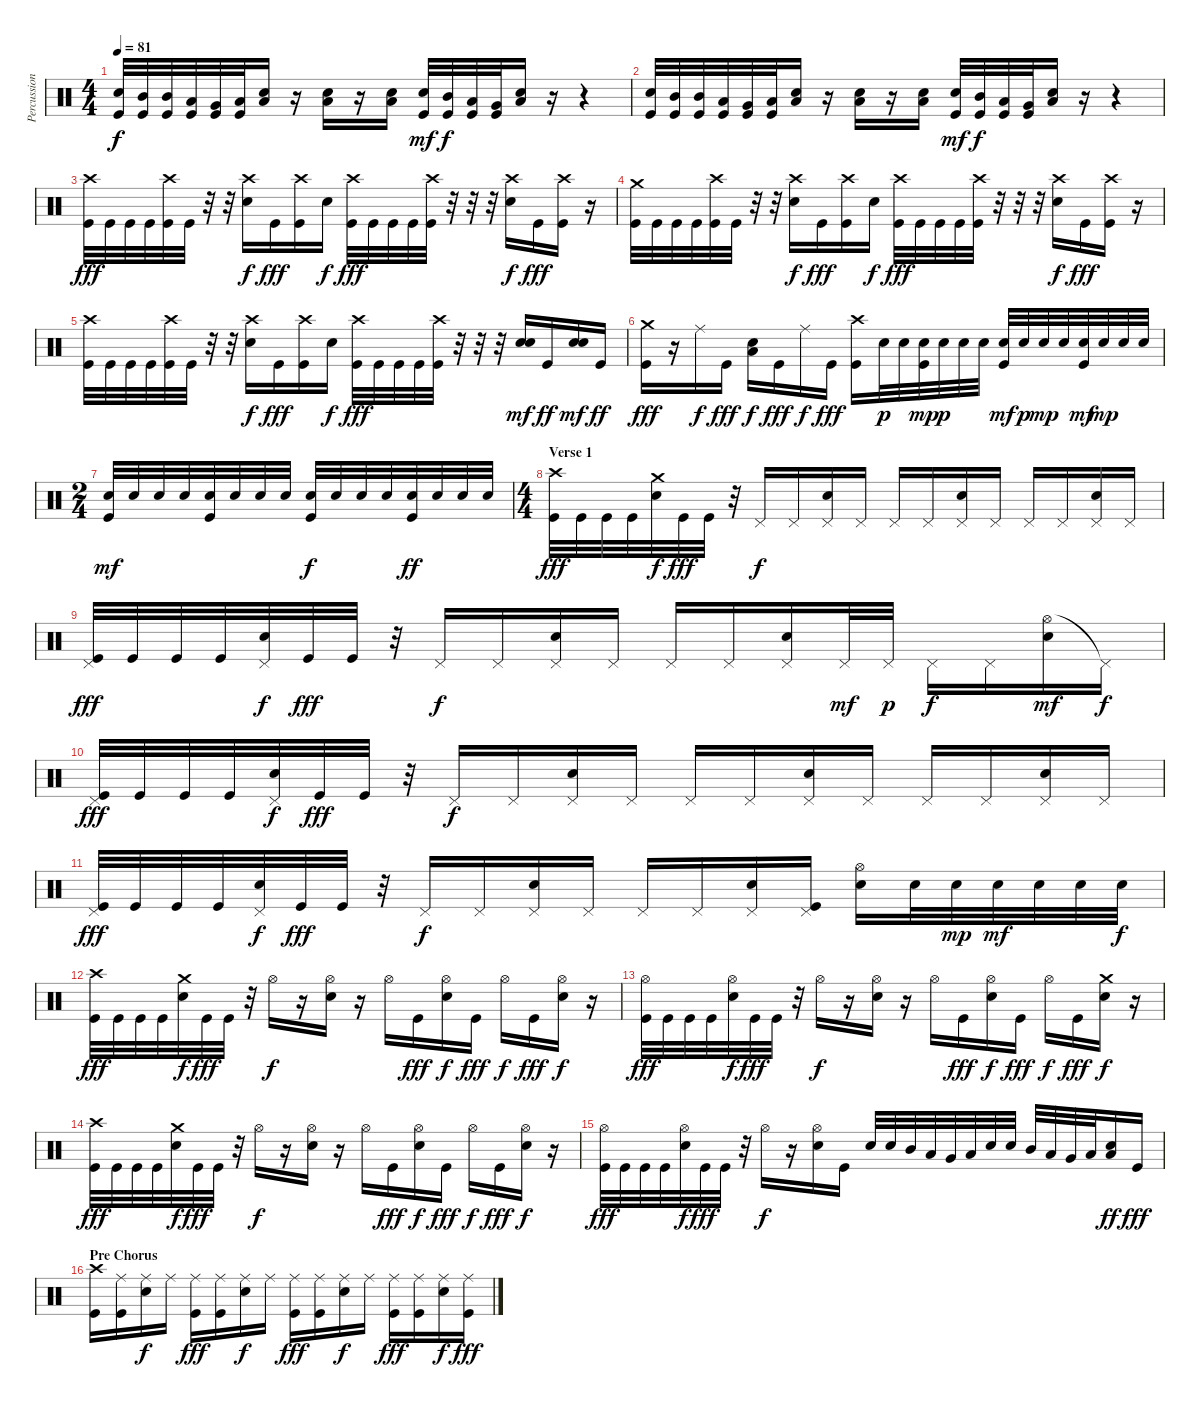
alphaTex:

\track ("Percussion" "Percussion") {instrument percussion}
\staff {score}
\articulation defaults
\ts (4 4)
\tempo 81
\clef neutral
\ks c
("Electric Snare (hit)" "Kick (hit)").32{dy f} ("Mid Tom (hit)" "Kick (hit)").32 ("Mid Tom (hit)" "Kick (hit)").32 ("Low Tom (hit)" "Kick (hit)").32 ("Very Low Tom (hit)" "Kick (hit)").32 ("Low Floor Tom (hit)" "Kick (hit)").32 ("Electric Snare (hit)" "Low Floor Tom (hit)").16 r.16 ("Electric Snare (hit)" "Low Floor Tom (hit)").16 r.16 ("Electric Snare (hit)" "Low Floor Tom (hit)").16 ("Electric Snare (hit)" "Kick (hit)").32{dy mf} ("Mid Tom (hit)" "Kick (hit)").32{dy f} ("Low Tom (hit)" "Kick (hit)").32 ("Very Low Tom (hit)" "Kick (hit)").32 ("Electric Snare (hit)" "Low Floor Tom (hit)").16 r.16 r.4 |
("Electric Snare (hit)" "Kick (hit)").32 ("Mid Tom (hit)" "Kick (hit)").32 ("Mid Tom (hit)" "Kick (hit)").32 ("Low Tom (hit)" "Kick (hit)").32 ("Very Low Tom (hit)" "Kick (hit)").32 ("Low Floor Tom (hit)" "Kick (hit)").32 ("Electric Snare (hit)" "Low Floor Tom (hit)").16 r.16 ("Electric Snare (hit)" "Low Floor Tom (hit)").16 r.16 ("Electric Snare (hit)" "Low Floor Tom (hit)").16 ("Electric Snare (hit)" "Kick (hit)").32{dy mf} ("Mid Tom (hit)" "Kick (hit)").32{dy f} ("Low Tom (hit)" "Kick (hit)").32 ("Very Low Tom (hit)" "Kick (hit)").32 ("Electric Snare (hit)" "Low Floor Tom (hit)").16 r.16 r.4 |
("Crash high (hit)" "Kick (hit)").32{dy fff} "Kick (hit)".32 "Kick (hit)".32 "Kick (hit)".32 ("Crash high (hit)" "Kick (hit)").32 "Kick (hit)".32 r.32 r.32 ("Crash high (hit)" "Electric Snare (hit)").16{dy f} "Kick (hit)".16{dy fff} ("Crash high (hit)" "Kick (hit)").16 "Electric Snare (hit)".16{dy f} ("Crash high (hit)" "Kick (hit)").32{dy fff} "Kick (hit)".32 "Kick (hit)".32 "Kick (hit)".32 ("Crash high (hit)" "Kick (hit)").32 r.32 r.32 r.32 ("Crash high (hit)" "Electric Snare (hit)").16{dy f} "Kick (hit)".16{dy fff} ("Crash high (hit)" "Kick (hit)").16 r.16 |
("Crash medium (hit)" "Kick (hit)").32 "Kick (hit)".32 "Kick (hit)".32 "Kick (hit)".32 ("Crash high (hit)" "Kick (hit)").32 "Kick (hit)".32 r.32 r.32 ("Crash high (hit)" "Electric Snare (hit)").16{dy f} "Kick (hit)".16{dy fff} ("Crash high (hit)" "Kick (hit)").16 "Electric Snare (hit)".16{dy f} ("Crash high (hit)" "Kick (hit)").32{dy fff} "Kick (hit)".32 "Kick (hit)".32 "Kick (hit)".32 ("Crash high (hit)" "Kick (hit)").32 r.32 r.32 r.32 ("Crash high (hit)" "Electric Snare (hit)").16{dy f} "Kick (hit)".16{dy fff} ("Crash high (hit)" "Kick (hit)").16 r.16 |
("Crash high (hit)" "Kick (hit)").32 "Kick (hit)".32 "Kick (hit)".32 "Kick (hit)".32 ("Crash high (hit)" "Kick (hit)").32 "Kick (hit)".32 r.32 r.32 ("Crash high (hit)" "Electric Snare (hit)").16{dy f} "Kick (hit)".16{dy fff} ("Crash high (hit)" "Kick (hit)").16 "Electric Snare (hit)".16{dy f} ("Crash high (hit)" "Kick (hit)").32{dy fff} "Kick (hit)".32 "Kick (hit)".32 "Kick (hit)".32 ("Crash high (hit)" "Kick (hit)").32 r.32 r.32 r.32 ("Electric Snare (hit)" "Electric Snare (hit)").16{dy mf} "Kick (hit)".16{dy ff} ("Electric Snare (hit)" "Electric Snare (hit)").16{dy mf} "Kick (hit)".16{dy ff} |
("Crash medium (hit)" "Kick (hit)").16{dy fff} r.16 "Ride (middle)".16{dy f} "Kick (hit)".16{dy fff} ("Electric Snare (hit)" "Low Floor Tom (hit)").16{dy f} "Kick (hit)".16{dy fff} "Ride (middle)".16{dy f} "Kick (hit)".16{dy fff} ("Crash high (hit)" "Kick (hit)").16 "Electric Snare (hit)".32{dy p} "Electric Snare (hit)".32 ("Electric Snare (hit)" "Kick (hit)").32{dy mp} "Electric Snare (hit)".32{dy p} "Electric Snare (hit)".32 "Electric Snare (hit)".32 ("Electric Snare (hit)" "Kick (hit)").32{dy mf} "Electric Snare (hit)".32{dy p} "Electric Snare (hit)".32{dy mp} "Electric Snare (hit)".32 ("Electric Snare (hit)" "Kick (hit)").32{dy mf} "Electric Snare (hit)".32{dy mp} "Electric Snare (hit)".32 "Electric Snare (hit)".32 |
\ts (2 4)
("Electric Snare (hit)" "Kick (hit)").32{dy mf} "Electric Snare (hit)".32 "Electric Snare (hit)".32 "Electric Snare (hit)".32 ("Electric Snare (hit)" "Kick (hit)").32 "Electric Snare (hit)".32 "Electric Snare (hit)".32 "Electric Snare (hit)".32 ("Electric Snare (hit)" "Kick (hit)").32{dy f} "Electric Snare (hit)".32 "Electric Snare (hit)".32 "Electric Snare (hit)".32 ("Electric Snare (hit)" "Kick (hit)").32{dy ff} "Electric Snare (hit)".32 "Electric Snare (hit)".32 "Electric Snare (hit)".32 |
\ts (4 4)
\section ("" "Verse 1")
("Crash high (hit)" "Kick (hit)").32{dy fff} "Kick (hit)".32 "Kick (hit)".32 "Kick (hit)".32 ("Crash medium (hit)" "Electric Snare (hit)").32{dy f} "Kick (hit)".32{dy fff} "Kick (hit)".32 r.32 "Pedal Hi-Hat (hit)".16{dy f} "Pedal Hi-Hat (hit)".16 ("Pedal Hi-Hat (hit)" "Electric Snare (hit)").16 "Pedal Hi-Hat (hit)".16 "Pedal Hi-Hat (hit)".16 "Pedal Hi-Hat (hit)".16 ("Pedal Hi-Hat (hit)" "Electric Snare (hit)").16 "Pedal Hi-Hat (hit)".16 "Pedal Hi-Hat (hit)".16 "Pedal Hi-Hat (hit)".16 ("Pedal Hi-Hat (hit)" "Electric Snare (hit)").16 "Pedal Hi-Hat (hit)".16 |
("Pedal Hi-Hat (hit)" "Kick (hit)").32{dy fff} "Kick (hit)".32 "Kick (hit)".32 "Kick (hit)".32 ("Pedal Hi-Hat (hit)" "Electric Snare (hit)").32{dy f} "Kick (hit)".32{dy fff} "Kick (hit)".32 r.32 "Pedal Hi-Hat (hit)".16{dy f} "Pedal Hi-Hat (hit)".16 ("Pedal Hi-Hat (hit)" "Electric Snare (hit)").16 "Pedal Hi-Hat (hit)".16 "Pedal Hi-Hat (hit)".16 "Pedal Hi-Hat (hit)".16 ("Pedal Hi-Hat (hit)" "Electric Snare (hit)").16 "Pedal Hi-Hat (hit)".32{dy mf} "Pedal Hi-Hat (hit)".32{dy p} "Pedal Hi-Hat (hit)".16{dy f} "Pedal Hi-Hat (hit)".16 ("Hi-Hat (open)" "Electric Snare (hit)").16{dy mf} "Pedal Hi-Hat (hit)"{t}.16{dy f} |
("Pedal Hi-Hat (hit)" "Kick (hit)").32{dy fff} "Kick (hit)".32 "Kick (hit)".32 "Kick (hit)".32 ("Pedal Hi-Hat (hit)" "Electric Snare (hit)").32{dy f} "Kick (hit)".32{dy fff} "Kick (hit)".32 r.32 "Pedal Hi-Hat (hit)".16{dy f} "Pedal Hi-Hat (hit)".16 ("Pedal Hi-Hat (hit)" "Electric Snare (hit)").16 "Pedal Hi-Hat (hit)".16 "Pedal Hi-Hat (hit)".16 "Pedal Hi-Hat (hit)".16 ("Pedal Hi-Hat (hit)" "Electric Snare (hit)").16 "Pedal Hi-Hat (hit)".16 "Pedal Hi-Hat (hit)".16 "Pedal Hi-Hat (hit)".16 ("Pedal Hi-Hat (hit)" "Electric Snare (hit)").16 "Pedal Hi-Hat (hit)".16 |
("Pedal Hi-Hat (hit)" "Kick (hit)").32{dy fff} "Kick (hit)".32 "Kick (hit)".32 "Kick (hit)".32 ("Pedal Hi-Hat (hit)" "Electric Snare (hit)").32{dy f} "Kick (hit)".32{dy fff} "Kick (hit)".32 r.32 "Pedal Hi-Hat (hit)".16{dy f} "Pedal Hi-Hat (hit)".16 ("Pedal Hi-Hat (hit)" "Electric Snare (hit)").16 "Pedal Hi-Hat (hit)".16 "Pedal Hi-Hat (hit)".16 "Pedal Hi-Hat (hit)".16 ("Pedal Hi-Hat (hit)" "Electric Snare (hit)").16 ("Pedal Hi-Hat (hit)" "Kick (hit)").16 ("Hi-Hat (open)" "Electric Snare (hit)").16 "Electric Snare (hit)".32 "Electric Snare (hit)".32{dy mp} "Electric Snare (hit)".32{dy mf} "Electric Snare (hit)".32 "Electric Snare (hit)".32 "Electric Snare (hit)".32{dy f} |
("Crash high (hit)" "Kick (hit)").32{dy fff} "Kick (hit)".32 "Kick (hit)".32 "Kick (hit)".32 ("Crash medium (hit)" "Electric Snare (hit)").32{dy f} "Kick (hit)".32{dy fff} "Kick (hit)".32 r.32 "Hi-Hat (open)".16{dy f} r.16 ("Hi-Hat (open)" "Electric Snare (hit)").16 r.16 "Hi-Hat (open)".16 "Kick (hit)".16{dy fff} ("Hi-Hat (open)" "Electric Snare (hit)").16{dy f} "Kick (hit)".16{dy fff} "Hi-Hat (open)".16{dy f} "Kick (hit)".16{dy fff} ("Hi-Hat (open)" "Electric Snare (hit)").16{dy f} r.16 |
("Hi-Hat (open)" "Kick (hit)").32{dy fff} "Kick (hit)".32 "Kick (hit)".32 "Kick (hit)".32 ("Hi-Hat (open)" "Electric Snare (hit)").32{dy f} "Kick (hit)".32{dy fff} "Kick (hit)".32 r.32 "Hi-Hat (open)".16{dy f} r.16 ("Hi-Hat (open)" "Electric Snare (hit)").16 r.16 "Hi-Hat (open)".16 "Kick (hit)".16{dy fff} ("Hi-Hat (open)" "Electric Snare (hit)").16{dy f} "Kick (hit)".16{dy fff} "Hi-Hat (open)".16{dy f} "Kick (hit)".16{dy fff} ("Crash medium (hit)" "Electric Snare (hit)").16{dy f} r.16 |
("Crash high (hit)" "Kick (hit)").32{dy fff} "Kick (hit)".32 "Kick (hit)".32 "Kick (hit)".32 ("Crash medium (hit)" "Electric Snare (hit)").32{dy f} "Kick (hit)".32{dy fff} "Kick (hit)".32 r.32 "Hi-Hat (open)".16{dy f} r.16 ("Hi-Hat (open)" "Electric Snare (hit)").16 r.16 "Hi-Hat (open)".16 "Kick (hit)".16{dy fff} ("Hi-Hat (open)" "Electric Snare (hit)").16{dy f} "Kick (hit)".16{dy fff} "Hi-Hat (open)".16{dy f} "Kick (hit)".16{dy fff} ("Hi-Hat (open)" "Electric Snare (hit)").16{dy f} r.16 |
("Hi-Hat (open)" "Kick (hit)").32{dy fff} "Kick (hit)".32 "Kick (hit)".32 "Kick (hit)".32 ("Hi-Hat (open)" "Electric Snare (hit)").32{dy f} "Kick (hit)".32{dy fff} "Kick (hit)".32 r.32 "Hi-Hat (open)".16{dy f} r.16 ("Hi-Hat (open)" "Electric Snare (hit)").16 "Kick (hit)".16 "Electric Snare (hit)".32 "Electric Snare (hit)".32 "Mid Tom (hit)".32 "Low Tom (hit)".32 "Very Low Tom (hit)".32 "Low Floor Tom (hit)".32 "Electric Snare (hit)".32 "Electric Snare (hit)".32 "Mid Tom (hit)".32 "Low Tom (hit)".32 "Very Low Tom (hit)".32 "Low Floor Tom (hit)".32 ("Electric Snare (hit)" "Low Floor Tom (hit)").16{dy ff} "Kick (hit)".16{dy fff} |
\section ("" "Pre Chorus")
("Crash high (hit)" "Kick (hit)").16 ("Ride (middle)" "Kick (hit)").16 ("Ride (middle)" "Electric Snare (hit)").16{dy f} "Ride (middle)".16 ("Ride (middle)" "Kick (hit)").16{dy fff} ("Ride (middle)" "Kick (hit)").16 ("Ride (middle)" "Electric Snare (hit)").16{dy f} "Ride (middle)".16 ("Ride (middle)" "Kick (hit)").16{dy fff} ("Ride (middle)" "Kick (hit)").16 ("Ride (middle)" "Electric Snare (hit)").16{dy f} "Ride (middle)".16 ("Ride (middle)" "Kick (hit)").16{dy fff} ("Ride (middle)" "Kick (hit)").16 ("Ride (middle)" "Electric Snare (hit)").16{dy f} ("Ride (middle)" "Kick (hit)").16{dy fff}
